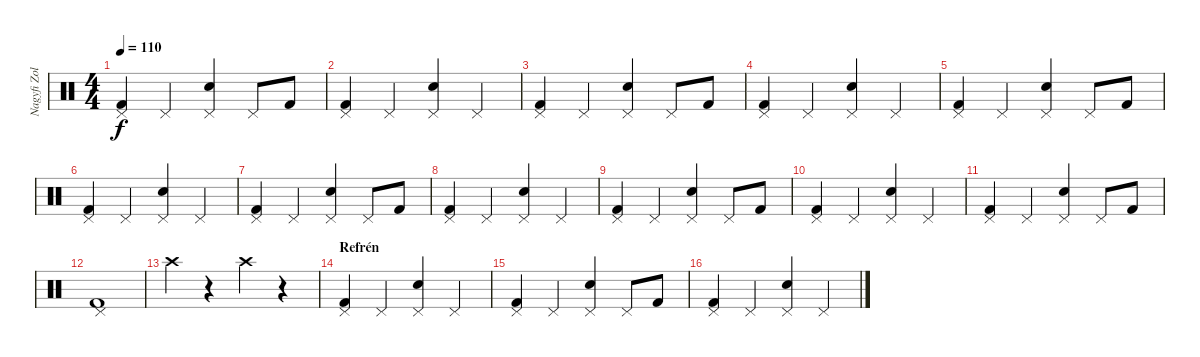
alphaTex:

\track ("Nagyfi Zoltán (dob)" "Nagyfi Zol") {instrument percussion}
\staff {score}
\articulation defaults
\ts (4 4)
\tempo 110
\clef neutral
\ks c
("Pedal Hi-Hat (hit)" "Kick (hit) 2").4{dy f} "Pedal Hi-Hat (hit)".4 ("Pedal Hi-Hat (hit)" "Snare (hit) 2").4 "Pedal Hi-Hat (hit)".8 "Kick (hit) 2".8 |
("Pedal Hi-Hat (hit)" "Kick (hit) 2").4 "Pedal Hi-Hat (hit)".4 ("Pedal Hi-Hat (hit)" "Snare (hit) 2").4 "Pedal Hi-Hat (hit)".4 |
("Pedal Hi-Hat (hit)" "Kick (hit) 2").4 "Pedal Hi-Hat (hit)".4 ("Pedal Hi-Hat (hit)" "Snare (hit) 2").4 "Pedal Hi-Hat (hit)".8 "Kick (hit) 2".8 |
("Pedal Hi-Hat (hit)" "Kick (hit) 2").4 "Pedal Hi-Hat (hit)".4 ("Pedal Hi-Hat (hit)" "Snare (hit) 2").4 "Pedal Hi-Hat (hit)".4 |
("Pedal Hi-Hat (hit)" "Kick (hit) 2").4 "Pedal Hi-Hat (hit)".4 ("Pedal Hi-Hat (hit)" "Snare (hit) 2").4 "Pedal Hi-Hat (hit)".8 "Kick (hit) 2".8 |
("Pedal Hi-Hat (hit)" "Kick (hit) 2").4 "Pedal Hi-Hat (hit)".4 ("Pedal Hi-Hat (hit)" "Snare (hit) 2").4 "Pedal Hi-Hat (hit)".4 |
("Pedal Hi-Hat (hit)" "Kick (hit) 2").4 "Pedal Hi-Hat (hit)".4 ("Pedal Hi-Hat (hit)" "Snare (hit) 2").4 "Pedal Hi-Hat (hit)".8 "Kick (hit) 2".8 |
("Pedal Hi-Hat (hit)" "Kick (hit) 2").4 "Pedal Hi-Hat (hit)".4 ("Pedal Hi-Hat (hit)" "Snare (hit) 2").4 "Pedal Hi-Hat (hit)".4 |
("Pedal Hi-Hat (hit)" "Kick (hit) 2").4 "Pedal Hi-Hat (hit)".4 ("Pedal Hi-Hat (hit)" "Snare (hit) 2").4 "Pedal Hi-Hat (hit)".8 "Kick (hit) 2".8 |
("Pedal Hi-Hat (hit)" "Kick (hit) 2").4 "Pedal Hi-Hat (hit)".4 ("Pedal Hi-Hat (hit)" "Snare (hit) 2").4 "Pedal Hi-Hat (hit)".4 |
("Pedal Hi-Hat (hit)" "Kick (hit) 2").4 "Pedal Hi-Hat (hit)".4 ("Pedal Hi-Hat (hit)" "Snare (hit) 2").4 "Pedal Hi-Hat (hit)".8 "Kick (hit) 2".8 |
("Pedal Hi-Hat (hit)" "Kick (hit) 2").1 |
"Crash high (hit)".4 r.4 "Crash high (hit)".4 r.4 |
\section ("" "Refrén")
("Pedal Hi-Hat (hit)" "Kick (hit) 2").4 "Pedal Hi-Hat (hit)".4 ("Pedal Hi-Hat (hit)" "Snare (hit) 2").4 "Pedal Hi-Hat (hit)".4 |
("Pedal Hi-Hat (hit)" "Kick (hit) 2").4 "Pedal Hi-Hat (hit)".4 ("Pedal Hi-Hat (hit)" "Snare (hit) 2").4 "Pedal Hi-Hat (hit)".8 "Kick (hit) 2".8 |
("Pedal Hi-Hat (hit)" "Kick (hit) 2").4 "Pedal Hi-Hat (hit)".4 ("Pedal Hi-Hat (hit)" "Snare (hit) 2").4 "Pedal Hi-Hat (hit)".4
